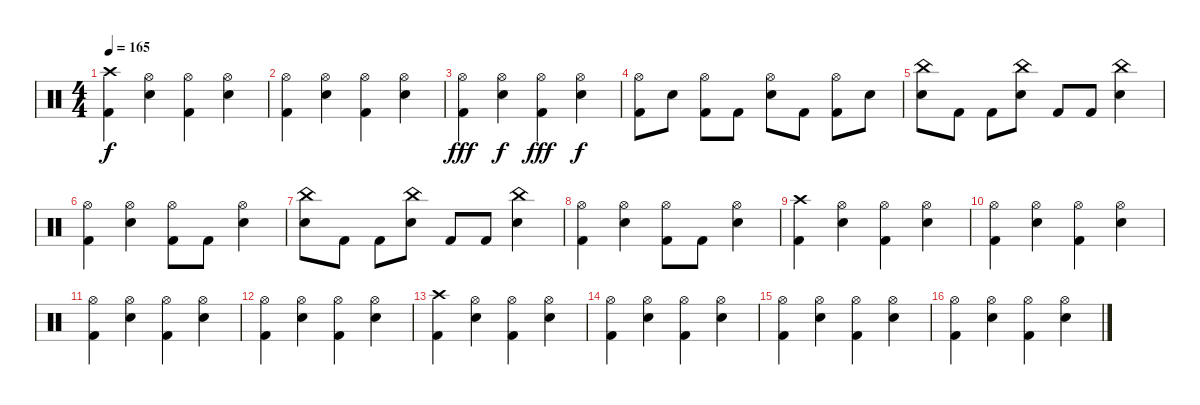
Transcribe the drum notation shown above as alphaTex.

\track "" {instrument percussion}
\staff {score}
\articulation defaults
\ts (4 4)
\tempo 165
\clef neutral
\ks c
("Kick (hit) 2" "Crash high (hit)").4{dy f} ("Electric Snare (hit)" "Hi-Hat (open)").4 ("Kick (hit) 2" "Hi-Hat (open)").4 ("Electric Snare (hit)" "Hi-Hat (open)").4 |
("Hi-Hat (open)" "Kick (hit) 2").4 ("Hi-Hat (open)" "Electric Snare (hit)").4 ("Hi-Hat (open)" "Kick (hit) 2").4 ("Hi-Hat (open)" "Electric Snare (hit)").4 |
("Hi-Hat (open)" "Kick (hit) 2").4{dy fff} ("Hi-Hat (open)" "Electric Snare (hit)").4{dy f} ("Hi-Hat (open)" "Kick (hit) 2").4{dy fff} ("Hi-Hat (open)" "Electric Snare (hit)").4{dy f} |
("Hi-Hat (open)" "Kick (hit) 2").8 "Electric Snare (hit)".8 ("Hi-Hat (open)" "Kick (hit) 2").8 "Kick (hit) 2".8 ("Hi-Hat (open)" "Electric Snare (hit)").8 "Kick (hit) 2".8 ("Hi-Hat (open)" "Kick (hit) 2").8 "Electric Snare (hit)".8 |
("China (hit)" "Electric Snare (hit)").8 "Kick (hit) 2".8 "Kick (hit) 2".8 ("China (hit)" "Electric Snare (hit)").8 "Kick (hit) 2".8 "Kick (hit) 2".8 ("China (hit)" "Electric Snare (hit)").4 |
("Hi-Hat (open)" "Kick (hit) 2").4 ("Hi-Hat (open)" "Electric Snare (hit)").4 ("Kick (hit) 2" "Hi-Hat (open)").8 "Kick (hit) 2".8 ("Hi-Hat (open)" "Electric Snare (hit)").4 |
("China (hit)" "Electric Snare (hit)").8 "Kick (hit) 2".8 "Kick (hit) 2".8 ("China (hit)" "Electric Snare (hit)").8 "Kick (hit) 2".8 "Kick (hit) 2".8 ("China (hit)" "Electric Snare (hit)").4 |
("Hi-Hat (open)" "Kick (hit) 2").4 ("Hi-Hat (open)" "Electric Snare (hit)").4 ("Kick (hit) 2" "Hi-Hat (open)").8 "Kick (hit) 2".8 ("Hi-Hat (open)" "Electric Snare (hit)").4 |
("Kick (hit) 2" "Crash high (hit)").4 ("Electric Snare (hit)" "Hi-Hat (open)").4 ("Kick (hit) 2" "Hi-Hat (open)").4 ("Electric Snare (hit)" "Hi-Hat (open)").4 |
("Hi-Hat (open)" "Kick (hit) 2").4 ("Hi-Hat (open)" "Electric Snare (hit)").4 ("Hi-Hat (open)" "Kick (hit) 2").4 ("Hi-Hat (open)" "Electric Snare (hit)").4 |
("Hi-Hat (open)" "Kick (hit) 2").4 ("Hi-Hat (open)" "Electric Snare (hit)").4 ("Hi-Hat (open)" "Kick (hit) 2").4 ("Hi-Hat (open)" "Electric Snare (hit)").4 |
("Hi-Hat (open)" "Kick (hit) 2").4 ("Hi-Hat (open)" "Electric Snare (hit)").4 ("Hi-Hat (open)" "Kick (hit) 2").4 ("Hi-Hat (open)" "Electric Snare (hit)").4 |
("Kick (hit) 2" "Crash high (hit)").4 ("Electric Snare (hit)" "Hi-Hat (open)").4 ("Kick (hit) 2" "Hi-Hat (open)").4 ("Electric Snare (hit)" "Hi-Hat (open)").4 |
("Hi-Hat (open)" "Kick (hit) 2").4 ("Hi-Hat (open)" "Electric Snare (hit)").4 ("Hi-Hat (open)" "Kick (hit) 2").4 ("Hi-Hat (open)" "Electric Snare (hit)").4 |
("Hi-Hat (open)" "Kick (hit) 2").4 ("Hi-Hat (open)" "Electric Snare (hit)").4 ("Hi-Hat (open)" "Kick (hit) 2").4 ("Hi-Hat (open)" "Electric Snare (hit)").4 |
("Hi-Hat (open)" "Kick (hit) 2").4 ("Hi-Hat (open)" "Electric Snare (hit)").4 ("Hi-Hat (open)" "Kick (hit) 2").4 ("Hi-Hat (open)" "Electric Snare (hit)").4
